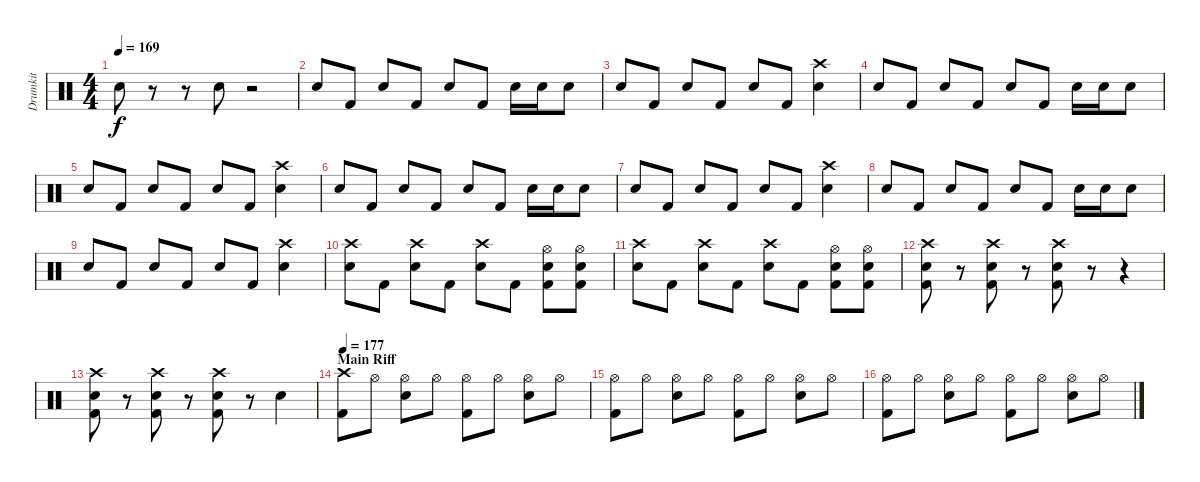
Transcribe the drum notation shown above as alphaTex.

\track ("Drumkit" "Drumkit") {instrument percussion}
\staff {score}
\articulation defaults
\ts (4 4)
\tempo 169
\clef neutral
\ks c "Snare (hit) 2".8{dy f}
r.8 r.8 "Snare (hit) 2".8 r.2 |
"Snare (hit) 2".8 "Kick (hit) 2".8 "Snare (hit) 2".8 "Kick (hit) 2".8 "Snare (hit) 2".8 "Kick (hit) 2".8 "Snare (hit) 2".16 "Snare (hit) 2".16 "Snare (hit) 2".8 |
"Snare (hit) 2".8 "Kick (hit) 2".8 "Snare (hit) 2".8 "Kick (hit) 2".8 "Snare (hit) 2".8 "Kick (hit) 2".8 ("Snare (hit) 2" "Crash high (hit)").4 |
"Snare (hit) 2".8 "Kick (hit) 2".8 "Snare (hit) 2".8 "Kick (hit) 2".8 "Snare (hit) 2".8 "Kick (hit) 2".8 "Snare (hit) 2".16 "Snare (hit) 2".16 "Snare (hit) 2".8 |
"Snare (hit) 2".8 "Kick (hit) 2".8 "Snare (hit) 2".8 "Kick (hit) 2".8 "Snare (hit) 2".8 "Kick (hit) 2".8 ("Snare (hit) 2" "Crash high (hit)").4 |
"Snare (hit) 2".8 "Kick (hit) 2".8 "Snare (hit) 2".8 "Kick (hit) 2".8 "Snare (hit) 2".8 "Kick (hit) 2".8 "Snare (hit) 2".16 "Snare (hit) 2".16 "Snare (hit) 2".8 |
"Snare (hit) 2".8 "Kick (hit) 2".8 "Snare (hit) 2".8 "Kick (hit) 2".8 "Snare (hit) 2".8 "Kick (hit) 2".8 ("Snare (hit) 2" "Crash high (hit)").4 |
"Snare (hit) 2".8 "Kick (hit) 2".8 "Snare (hit) 2".8 "Kick (hit) 2".8 "Snare (hit) 2".8 "Kick (hit) 2".8 "Snare (hit) 2".16 "Snare (hit) 2".16 "Snare (hit) 2".8 |
"Snare (hit) 2".8 "Kick (hit) 2".8 "Snare (hit) 2".8 "Kick (hit) 2".8 "Snare (hit) 2".8 "Kick (hit) 2".8 ("Snare (hit) 2" "Crash high (hit)").4 |
("Snare (hit) 2" "Crash high (hit)").8 "Kick (hit) 2".8 ("Snare (hit) 2" "Crash high (hit)").8 "Kick (hit) 2".8 ("Snare (hit) 2" "Crash high (hit)").8 "Kick (hit) 2".8 ("Snare (hit) 2" "Kick (hit) 2" "Hi-Hat (open)").8 ("Kick (hit) 2" "Snare (hit) 2" "Hi-Hat (open)").8 |
("Snare (hit) 2" "Crash high (hit)").8 "Kick (hit) 2".8 ("Snare (hit) 2" "Crash high (hit)").8 "Kick (hit) 2".8 ("Snare (hit) 2" "Crash high (hit)").8 "Kick (hit) 2".8 ("Snare (hit) 2" "Kick (hit) 2" "Hi-Hat (open)").8 ("Kick (hit) 2" "Snare (hit) 2" "Hi-Hat (open)").8 |
("Snare (hit) 2" "Kick (hit) 2" "Crash high (hit)").8 r.8 ("Snare (hit) 2" "Kick (hit) 2" "Crash high (hit)").8 r.8 ("Snare (hit) 2" "Kick (hit) 2" "Crash high (hit)").8 r.8 r.4 |
("Snare (hit) 2" "Kick (hit) 2" "Crash high (hit)").8 r.8 ("Snare (hit) 2" "Kick (hit) 2" "Crash high (hit)").8 r.8 ("Snare (hit) 2" "Kick (hit) 2" "Crash high (hit)").8 r.8 "Snare (hit) 2".4 |
\section ("" "Main Riff")
\tempo 177
("Crash high (hit)" "Kick (hit) 2").8 "Hi-Hat (open)".8 ("Snare (hit) 2" "Hi-Hat (open)").8 "Hi-Hat (open)".8 ("Kick (hit) 2" "Hi-Hat (open)").8 "Hi-Hat (open)".8 ("Snare (hit) 2" "Hi-Hat (open)").8 "Hi-Hat (open)".8 |
("Kick (hit) 2" "Hi-Hat (open)").8 "Hi-Hat (open)".8 ("Snare (hit) 2" "Hi-Hat (open)").8 "Hi-Hat (open)".8 ("Kick (hit) 2" "Hi-Hat (open)").8 "Hi-Hat (open)".8 ("Snare (hit) 2" "Hi-Hat (open)").8 "Hi-Hat (open)".8 |
("Kick (hit) 2" "Hi-Hat (open)").8 "Hi-Hat (open)".8 ("Snare (hit) 2" "Hi-Hat (open)").8 "Hi-Hat (open)".8 ("Kick (hit) 2" "Hi-Hat (open)").8 "Hi-Hat (open)".8 ("Snare (hit) 2" "Hi-Hat (open)").8 "Hi-Hat (open)".8
